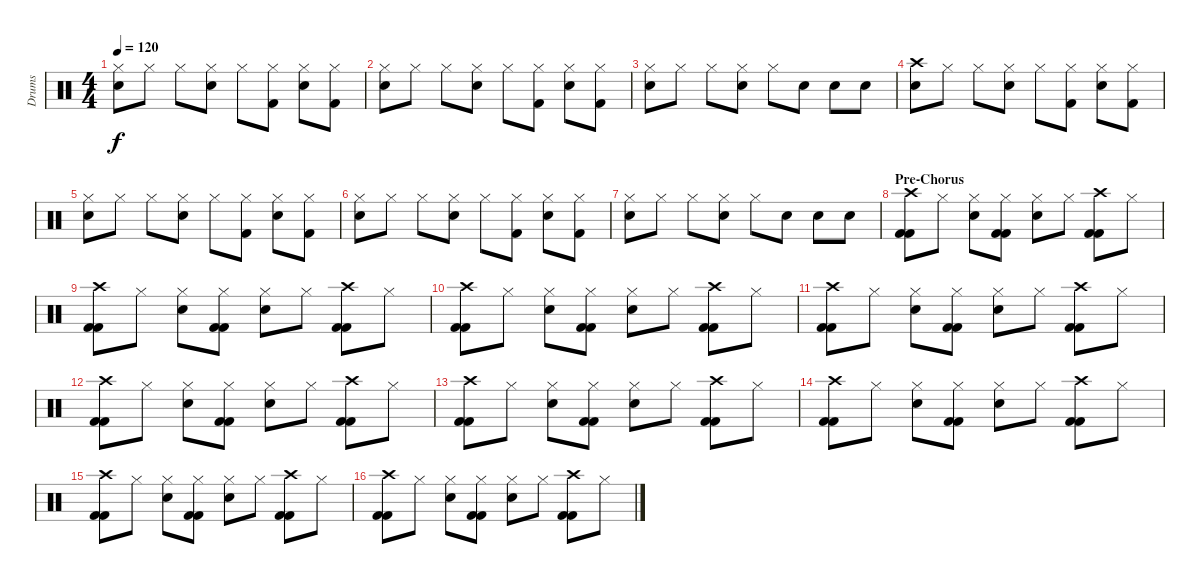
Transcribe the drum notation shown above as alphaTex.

\track ("Drums" "Drums") {instrument percussion}
\staff {score}
\articulation defaults
\ts (4 4)
\tempo 120
\clef neutral
\ks c
("Hi-Hat (closed)" "Snare (hit) 2").8{dy f} "Hi-Hat (closed)".8 "Hi-Hat (closed)".8 ("Hi-Hat (closed)" "Snare (hit) 2").8 "Hi-Hat (closed)".8 ("Hi-Hat (closed)" "Kick (hit) 2").8 ("Hi-Hat (closed)" "Snare (hit) 2").8 ("Hi-Hat (closed)" "Kick (hit) 2").8 |
("Hi-Hat (closed)" "Snare (hit) 2").8 "Hi-Hat (closed)".8 "Hi-Hat (closed)".8 ("Hi-Hat (closed)" "Snare (hit) 2").8 "Hi-Hat (closed)".8 ("Hi-Hat (closed)" "Kick (hit) 2").8 ("Hi-Hat (closed)" "Snare (hit) 2").8 ("Hi-Hat (closed)" "Kick (hit) 2").8 |
("Hi-Hat (closed)" "Snare (hit) 2").8 "Hi-Hat (closed)".8 "Hi-Hat (closed)".8 ("Hi-Hat (closed)" "Snare (hit) 2").8 "Hi-Hat (closed)".8 "Snare (hit) 2".8 "Snare (hit) 2".8 "Snare (hit) 2".8 |
("Crash high (hit)" "Snare (hit) 2").8 "Hi-Hat (closed)".8 "Hi-Hat (closed)".8 ("Hi-Hat (closed)" "Snare (hit) 2").8 "Hi-Hat (closed)".8 ("Hi-Hat (closed)" "Kick (hit) 2").8 ("Hi-Hat (closed)" "Snare (hit) 2").8 ("Hi-Hat (closed)" "Kick (hit) 2").8 |
("Hi-Hat (closed)" "Snare (hit) 2").8 "Hi-Hat (closed)".8 "Hi-Hat (closed)".8 ("Hi-Hat (closed)" "Snare (hit) 2").8 "Hi-Hat (closed)".8 ("Hi-Hat (closed)" "Kick (hit) 2").8 ("Hi-Hat (closed)" "Snare (hit) 2").8 ("Hi-Hat (closed)" "Kick (hit) 2").8 |
("Hi-Hat (closed)" "Snare (hit) 2").8 "Hi-Hat (closed)".8 "Hi-Hat (closed)".8 ("Hi-Hat (closed)" "Snare (hit) 2").8 "Hi-Hat (closed)".8 ("Hi-Hat (closed)" "Kick (hit) 2").8 ("Hi-Hat (closed)" "Snare (hit) 2").8 ("Hi-Hat (closed)" "Kick (hit) 2").8 |
("Hi-Hat (closed)" "Snare (hit) 2").8 "Hi-Hat (closed)".8 "Hi-Hat (closed)".8 ("Hi-Hat (closed)" "Snare (hit) 2").8 "Hi-Hat (closed)".8 "Snare (hit) 2".8 "Snare (hit) 2".8 "Snare (hit) 2".8 |
\section ("" "Pre-Chorus")
("Crash high (hit)" "Kick (hit) 2" "Kick (hit) 2").8 "Hi-Hat (closed)".8 ("Hi-Hat (closed)" "Snare (hit) 2").8 ("Hi-Hat (closed)" "Kick (hit) 2" "Kick (hit) 2").8 ("Hi-Hat (closed)" "Snare (hit) 2").8 "Hi-Hat (closed)".8 ("Crash high (hit)" "Kick (hit) 2" "Kick (hit) 2").8 "Hi-Hat (closed)".8 |
("Crash high (hit)" "Kick (hit) 2" "Kick (hit) 2").8 "Hi-Hat (closed)".8 ("Hi-Hat (closed)" "Snare (hit) 2").8 ("Hi-Hat (closed)" "Kick (hit) 2" "Kick (hit) 2").8 ("Hi-Hat (closed)" "Snare (hit) 2").8 "Hi-Hat (closed)".8 ("Crash high (hit)" "Kick (hit) 2" "Kick (hit) 2").8 "Hi-Hat (closed)".8 |
("Crash high (hit)" "Kick (hit) 2" "Kick (hit) 2").8 "Hi-Hat (closed)".8 ("Hi-Hat (closed)" "Snare (hit) 2").8 ("Hi-Hat (closed)" "Kick (hit) 2" "Kick (hit) 2").8 ("Hi-Hat (closed)" "Snare (hit) 2").8 "Hi-Hat (closed)".8 ("Crash high (hit)" "Kick (hit) 2" "Kick (hit) 2").8 "Hi-Hat (closed)".8 |
("Crash high (hit)" "Kick (hit) 2" "Kick (hit) 2").8 "Hi-Hat (closed)".8 ("Hi-Hat (closed)" "Snare (hit) 2").8 ("Hi-Hat (closed)" "Kick (hit) 2" "Kick (hit) 2").8 ("Hi-Hat (closed)" "Snare (hit) 2").8 "Hi-Hat (closed)".8 ("Crash high (hit)" "Kick (hit) 2" "Kick (hit) 2").8 "Hi-Hat (closed)".8 |
("Crash high (hit)" "Kick (hit) 2" "Kick (hit) 2").8 "Hi-Hat (closed)".8 ("Hi-Hat (closed)" "Snare (hit) 2").8 ("Hi-Hat (closed)" "Kick (hit) 2" "Kick (hit) 2").8 ("Hi-Hat (closed)" "Snare (hit) 2").8 "Hi-Hat (closed)".8 ("Crash high (hit)" "Kick (hit) 2" "Kick (hit) 2").8 "Hi-Hat (closed)".8 |
("Crash high (hit)" "Kick (hit) 2" "Kick (hit) 2").8 "Hi-Hat (closed)".8 ("Hi-Hat (closed)" "Snare (hit) 2").8 ("Hi-Hat (closed)" "Kick (hit) 2" "Kick (hit) 2").8 ("Hi-Hat (closed)" "Snare (hit) 2").8 "Hi-Hat (closed)".8 ("Crash high (hit)" "Kick (hit) 2" "Kick (hit) 2").8 "Hi-Hat (closed)".8 |
("Crash high (hit)" "Kick (hit) 2" "Kick (hit) 2").8 "Hi-Hat (closed)".8 ("Hi-Hat (closed)" "Snare (hit) 2").8 ("Hi-Hat (closed)" "Kick (hit) 2" "Kick (hit) 2").8 ("Hi-Hat (closed)" "Snare (hit) 2").8 "Hi-Hat (closed)".8 ("Crash high (hit)" "Kick (hit) 2" "Kick (hit) 2").8 "Hi-Hat (closed)".8 |
("Crash high (hit)" "Kick (hit) 2" "Kick (hit) 2").8 "Hi-Hat (closed)".8 ("Hi-Hat (closed)" "Snare (hit) 2").8 ("Hi-Hat (closed)" "Kick (hit) 2" "Kick (hit) 2").8 ("Hi-Hat (closed)" "Snare (hit) 2").8 "Hi-Hat (closed)".8 ("Crash high (hit)" "Kick (hit) 2" "Kick (hit) 2").8 "Hi-Hat (closed)".8 |
("Crash high (hit)" "Kick (hit) 2" "Kick (hit) 2").8 "Hi-Hat (closed)".8 ("Hi-Hat (closed)" "Snare (hit) 2").8 ("Hi-Hat (closed)" "Kick (hit) 2" "Kick (hit) 2").8 ("Hi-Hat (closed)" "Snare (hit) 2").8 "Hi-Hat (closed)".8 ("Crash high (hit)" "Kick (hit) 2" "Kick (hit) 2").8 "Hi-Hat (closed)".8
